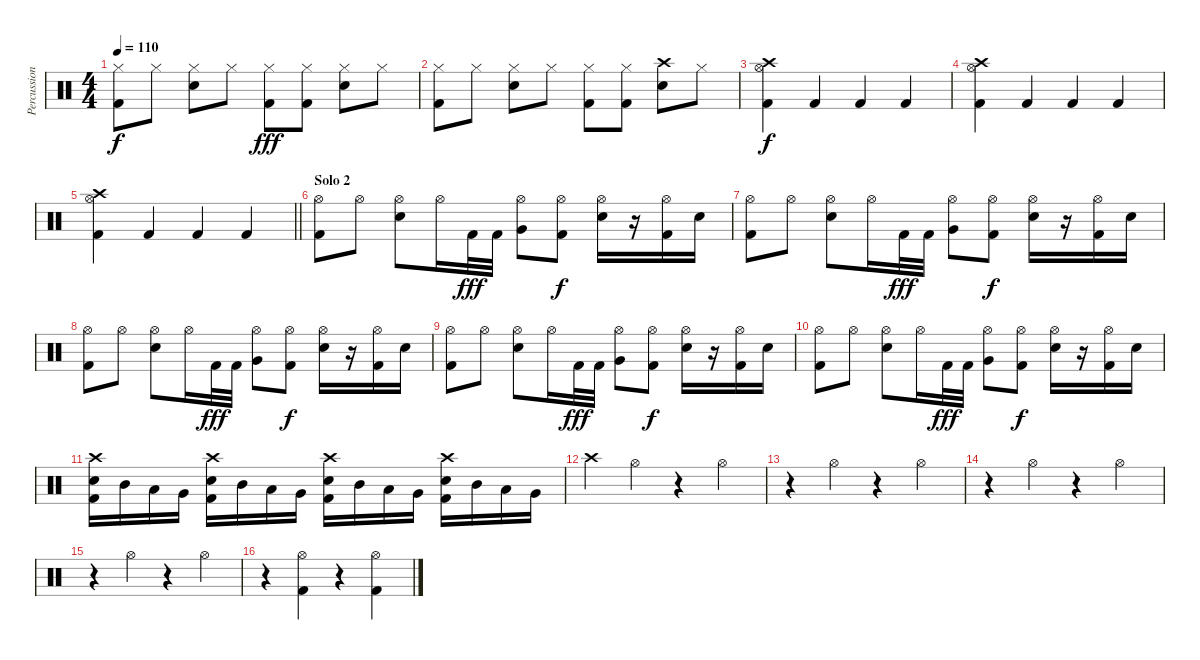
\track ("Percussion" "Percussion") {instrument percussion}
\staff {score}
\articulation defaults
\ts (4 4)
\tempo 110
\clef neutral
\ks c
("Hi-Hat (closed)" "Kick (hit) 2").8{dy f} "Hi-Hat (closed)".8 ("Hi-Hat (closed)" "Snare (hit) 2").8 "Hi-Hat (closed)".8 ("Hi-Hat (closed)" "Kick (hit) 2").8{dy fff} ("Hi-Hat (closed)" "Kick (hit) 2").8 ("Hi-Hat (closed)" "Snare (hit) 2").8 "Hi-Hat (closed)".8 |
("Hi-Hat (closed)" "Kick (hit) 2").8 "Hi-Hat (closed)".8 ("Hi-Hat (closed)" "Snare (hit) 2").8 "Hi-Hat (closed)".8 ("Hi-Hat (closed)" "Kick (hit) 2").8 ("Hi-Hat (closed)" "Kick (hit) 2").8 ("Crash high (hit)" "Snare (hit) 2").8 "Hi-Hat (closed)".8 |
("Crash high (hit)" "Hi-Hat (open)" "Kick (hit) 2").4{dy f} "Kick (hit) 2".4 "Kick (hit) 2".4 "Kick (hit) 2".4 |
("Crash high (hit)" "Hi-Hat (open)" "Kick (hit) 2").4 "Kick (hit) 2".4 "Kick (hit) 2".4 "Kick (hit) 2".4 |
\barLineRight lightlight
("Crash high (hit)" "Hi-Hat (open)" "Kick (hit) 2").4 "Kick (hit) 2".4 "Kick (hit) 2".4 "Kick (hit) 2".4 |
\section ("" "Solo 2")
("Hi-Hat (open)" "Kick (hit) 2").8 "Hi-Hat (open)".8 ("Hi-Hat (open)" "Snare (hit) 2").8 "Hi-Hat (open)".16 "Kick (hit) 2".32{dy fff} "Kick (hit) 2".32 ("Hi-Hat (open)" "Very Low Tom (hit)").8 ("Hi-Hat (open)" "Kick (hit) 2").8{dy f} ("Hi-Hat (open)" "Snare (hit) 2").16 r.16 ("Hi-Hat (open)" "Kick (hit) 2").16 "Snare (hit) 2".16 |
("Hi-Hat (open)" "Kick (hit) 2").8 "Hi-Hat (open)".8 ("Hi-Hat (open)" "Snare (hit) 2").8 "Hi-Hat (open)".16 "Kick (hit) 2".32{dy fff} "Kick (hit) 2".32 ("Hi-Hat (open)" "Very Low Tom (hit)").8 ("Hi-Hat (open)" "Kick (hit) 2").8{dy f} ("Hi-Hat (open)" "Snare (hit) 2").16 r.16 ("Hi-Hat (open)" "Kick (hit) 2").16 "Snare (hit) 2".16 |
("Hi-Hat (open)" "Kick (hit) 2").8 "Hi-Hat (open)".8 ("Hi-Hat (open)" "Snare (hit) 2").8 "Hi-Hat (open)".16 "Kick (hit) 2".32{dy fff} "Kick (hit) 2".32 ("Hi-Hat (open)" "Very Low Tom (hit)").8 ("Hi-Hat (open)" "Kick (hit) 2").8{dy f} ("Hi-Hat (open)" "Snare (hit) 2").16 r.16 ("Hi-Hat (open)" "Kick (hit) 2").16 "Snare (hit) 2".16 |
("Hi-Hat (open)" "Kick (hit) 2").8 "Hi-Hat (open)".8 ("Hi-Hat (open)" "Snare (hit) 2").8 "Hi-Hat (open)".16 "Kick (hit) 2".32{dy fff} "Kick (hit) 2".32 ("Hi-Hat (open)" "Very Low Tom (hit)").8 ("Hi-Hat (open)" "Kick (hit) 2").8{dy f} ("Hi-Hat (open)" "Snare (hit) 2").16 r.16 ("Hi-Hat (open)" "Kick (hit) 2").16 "Snare (hit) 2".16 |
("Hi-Hat (open)" "Kick (hit) 2").8 "Hi-Hat (open)".8 ("Hi-Hat (open)" "Snare (hit) 2").8 "Hi-Hat (open)".16 "Kick (hit) 2".32{dy fff} "Kick (hit) 2".32 ("Hi-Hat (open)" "Very Low Tom (hit)").8 ("Hi-Hat (open)" "Kick (hit) 2").8{dy f} ("Hi-Hat (open)" "Snare (hit) 2").16 r.16 ("Hi-Hat (open)" "Kick (hit) 2").16 "Snare (hit) 2".16 |
("Crash high (hit)" "Snare (hit) 2" "Kick (hit) 2").16 "Mid Tom (hit)".16 "Low Tom (hit)".16 "Very Low Tom (hit)".16 ("Crash high (hit)" "Snare (hit) 2" "Kick (hit) 2").16 "Mid Tom (hit)".16 "Low Tom (hit)".16 "Very Low Tom (hit)".16 ("Crash high (hit)" "Snare (hit) 2" "Kick (hit) 2").16 "Mid Tom (hit)".16 "Low Tom (hit)".16 "Very Low Tom (hit)".16 ("Crash high (hit)" "Snare (hit) 2" "Kick (hit) 2").16 "Mid Tom (hit)".16 "Low Tom (hit)".16 "Very Low Tom (hit)".16 |
"Crash high (hit)".4 "Hi-Hat (open)".4 r.4 "Hi-Hat (open)".4 |
r.4 "Hi-Hat (open)".4 r.4 "Hi-Hat (open)".4 |
r.4 "Hi-Hat (open)".4 r.4 "Hi-Hat (open)".4 |
r.4 "Hi-Hat (open)".4 r.4 "Hi-Hat (open)".4 |
r.4 ("Hi-Hat (open)" "Kick (hit) 2").4 r.4 ("Hi-Hat (open)" "Kick (hit) 2").4
